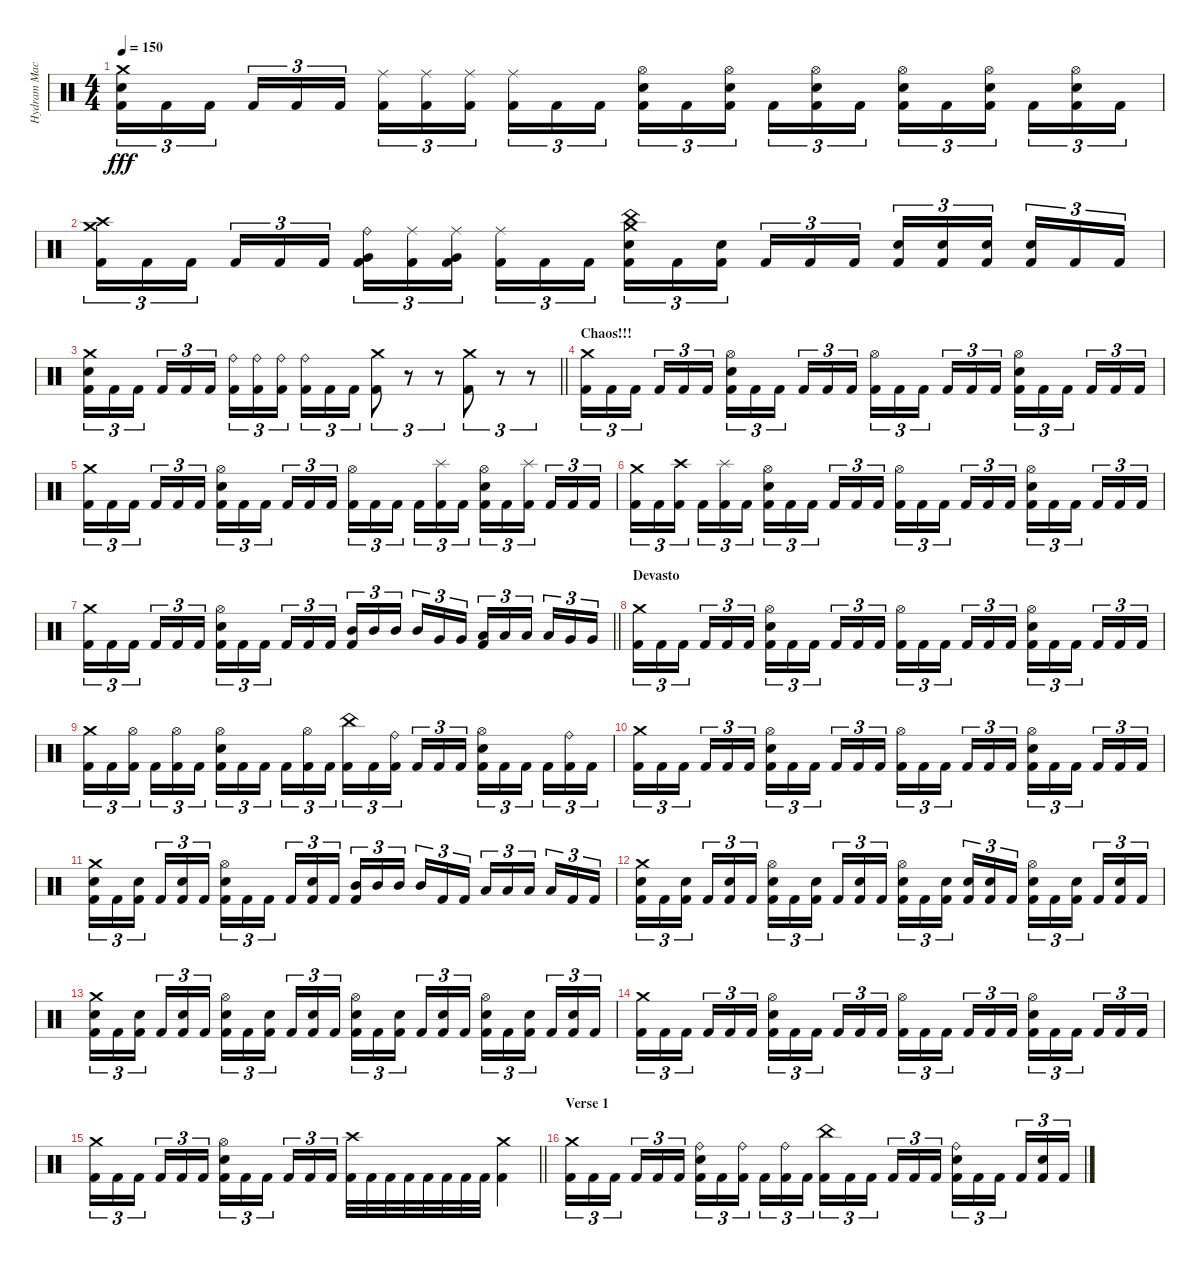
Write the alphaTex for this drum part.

\track ("Hydram Machine" "Hydram Mac") {instrument percussion}
\staff {score}
\articulation defaults
\ts (4 4)
\tempo 150
\clef neutral
\ks c
("Crash medium (hit)" "Electric Snare (hit)" "Kick (hit) 2").16{tu (3 2) dy fff} "Kick (hit) 2".16{tu (3 2)} "Kick (hit) 2".16{tu (3 2) beam splitsecondary} "Kick (hit) 2".16{tu (3 2)} "Kick (hit) 2".16{tu (3 2)} "Kick (hit) 2".16{tu (3 2)} ("Ride (middle)" "Kick (hit) 2").16{tu (3 2)} ("Ride (middle)" "Kick (hit) 2").16{tu (3 2)} ("Ride (middle)" "Kick (hit) 2").16{tu (3 2) beam splitsecondary} ("Ride (middle)" "Kick (hit) 2").16{tu (3 2)} "Kick (hit) 2".16{tu (3 2)} "Kick (hit) 2".16{tu (3 2)} ("Hi-Hat (open)" "Electric Snare (hit)" "Kick (hit) 2").16{tu (3 2)} "Kick (hit) 2".16{tu (3 2)} ("Hi-Hat (open)" "Electric Snare (hit)" "Kick (hit) 2").16{tu (3 2) beam splitsecondary} "Kick (hit) 2".16{tu (3 2)} ("Hi-Hat (open)" "Electric Snare (hit)" "Kick (hit) 2").16{tu (3 2)} "Kick (hit) 2".16{tu (3 2)} ("Hi-Hat (open)" "Electric Snare (hit)" "Kick (hit) 2").16{tu (3 2)} "Kick (hit) 2".16{tu (3 2)} ("Hi-Hat (open)" "Electric Snare (hit)" "Kick (hit) 2").16{tu (3 2) beam splitsecondary} "Kick (hit) 2".16{tu (3 2)} ("Hi-Hat (open)" "Electric Snare (hit)" "Kick (hit) 2").16{tu (3 2)} "Kick (hit) 2".16{tu (3 2)} |
("Crash medium (hit)" "Crash high (hit)" "Kick (hit) 2").16{tu (3 2)} "Kick (hit) 2".16{tu (3 2)} "Kick (hit) 2".16{tu (3 2) beam splitsecondary} "Kick (hit) 2".16{tu (3 2)} "Kick (hit) 2".16{tu (3 2)} "Kick (hit) 2".16{tu (3 2)} ("Ride (bell)" "Very Low Tom (hit)" "Kick (hit) 2").16{tu (3 2)} ("Ride (middle)" "Kick (hit) 2").16{tu (3 2)} ("Ride (middle)" "Very Low Tom (hit)" "Kick (hit) 2").16{tu (3 2) beam splitsecondary} ("Ride (middle)" "Kick (hit) 2").16{tu (3 2)} "Kick (hit) 2".16{tu (3 2)} "Kick (hit) 2".16{tu (3 2)} ("Crash medium (hit)" "China (hit)" "Electric Snare (hit)" "Kick (hit) 2").16{tu (3 2)} "Kick (hit) 2".16{tu (3 2)} ("Electric Snare (hit)" "Kick (hit) 2").16{tu (3 2) beam splitsecondary} "Kick (hit) 2".16{tu (3 2)} "Kick (hit) 2".16{tu (3 2)} "Kick (hit) 2".16{tu (3 2)} ("Electric Snare (hit)" "Kick (hit) 2").16{tu (3 2)} ("Electric Snare (hit)" "Kick (hit) 2").16{tu (3 2)} ("Electric Snare (hit)" "Kick (hit) 2").16{tu (3 2) beam splitsecondary} ("Electric Snare (hit)" "Kick (hit) 2").16{tu (3 2)} "Kick (hit) 2".16{tu (3 2)} "Kick (hit) 2".16{tu (3 2)} |
\barLineRight lightlight
("Crash medium (hit)" "Electric Snare (hit)" "Kick (hit) 2").16{tu (3 2)} "Kick (hit) 2".16{tu (3 2)} "Kick (hit) 2".16{tu (3 2) beam splitsecondary} "Kick (hit) 2".16{tu (3 2)} "Kick (hit) 2".16{tu (3 2)} "Kick (hit) 2".16{tu (3 2)} ("Ride (bell)" "Kick (hit) 2").16{tu (3 2)} ("Ride (bell)" "Kick (hit) 2").16{tu (3 2)} ("Ride (bell)" "Kick (hit) 2").16{tu (3 2) beam splitsecondary} ("Ride (bell)" "Kick (hit) 2").16{tu (3 2)} "Kick (hit) 2".16{tu (3 2)} "Kick (hit) 2".16{tu (3 2)} ("Crash medium (hit)" "Kick (hit) 2").8{tu (3 2)} r.8{tu (3 2)} r.8{tu (3 2)} ("Crash medium (hit)" "Kick (hit) 2").8{tu (3 2)} r.8{tu (3 2)} r.8{tu (3 2)} |
\section ("" "Chaos!!!")
("Crash medium (hit)" "Kick (hit) 2").16{tu (3 2)} "Kick (hit) 2".16{tu (3 2)} "Kick (hit) 2".16{tu (3 2) beam splitsecondary} "Kick (hit) 2".16{tu (3 2)} "Kick (hit) 2".16{tu (3 2)} "Kick (hit) 2".16{tu (3 2)} ("Hi-Hat (open)" "Electric Snare (hit)" "Kick (hit) 2").16{tu (3 2)} "Kick (hit) 2".16{tu (3 2)} "Kick (hit) 2".16{tu (3 2) beam splitsecondary} "Kick (hit) 2".16{tu (3 2)} "Kick (hit) 2".16{tu (3 2)} "Kick (hit) 2".16{tu (3 2)} ("Hi-Hat (open)" "Kick (hit) 2").16{tu (3 2)} "Kick (hit) 2".16{tu (3 2)} "Kick (hit) 2".16{tu (3 2) beam splitsecondary} "Kick (hit) 2".16{tu (3 2)} "Kick (hit) 2".16{tu (3 2)} "Kick (hit) 2".16{tu (3 2)} ("Hi-Hat (open)" "Electric Snare (hit)" "Kick (hit) 2").16{tu (3 2)} "Kick (hit) 2".16{tu (3 2)} "Kick (hit) 2".16{tu (3 2) beam splitsecondary} "Kick (hit) 2".16{tu (3 2)} "Kick (hit) 2".16{tu (3 2)} "Kick (hit) 2".16{tu (3 2)} |
("Crash medium (hit)" "Kick (hit) 2").16{tu (3 2)} "Kick (hit) 2".16{tu (3 2)} "Kick (hit) 2".16{tu (3 2) beam splitsecondary} "Kick (hit) 2".16{tu (3 2)} "Kick (hit) 2".16{tu (3 2)} "Kick (hit) 2".16{tu (3 2)} ("Hi-Hat (open)" "Electric Snare (hit)" "Kick (hit) 2").16{tu (3 2)} "Kick (hit) 2".16{tu (3 2)} "Kick (hit) 2".16{tu (3 2) beam splitsecondary} "Kick (hit) 2".16{tu (3 2)} "Kick (hit) 2".16{tu (3 2)} "Kick (hit) 2".16{tu (3 2)} ("Hi-Hat (open)" "Kick (hit) 2").16{tu (3 2)} "Kick (hit) 2".16{tu (3 2)} "Kick (hit) 2".16{tu (3 2) beam splitsecondary} "Kick (hit) 2".16{tu (3 2)} ("Splash (hit)" "Kick (hit) 2").16{tu (3 2)} "Kick (hit) 2".16{tu (3 2)} ("Hi-Hat (open)" "Electric Snare (hit)" "Kick (hit) 2").16{tu (3 2)} "Kick (hit) 2".16{tu (3 2)} ("Splash (hit)" "Kick (hit) 2").16{tu (3 2) beam splitsecondary} "Kick (hit) 2".16{tu (3 2)} "Kick (hit) 2".16{tu (3 2)} "Kick (hit) 2".16{tu (3 2)} |
("Crash medium (hit)" "Kick (hit) 2").16{tu (3 2)} "Kick (hit) 2".16{tu (3 2)} ("Crash high (hit)" "Kick (hit) 2").16{tu (3 2) beam splitsecondary} "Kick (hit) 2".16{tu (3 2)} ("Splash (hit)" "Kick (hit) 2").16{tu (3 2)} "Kick (hit) 2".16{tu (3 2)} ("Hi-Hat (open)" "Electric Snare (hit)" "Kick (hit) 2").16{tu (3 2)} "Kick (hit) 2".16{tu (3 2)} "Kick (hit) 2".16{tu (3 2) beam splitsecondary} "Kick (hit) 2".16{tu (3 2)} "Kick (hit) 2".16{tu (3 2)} "Kick (hit) 2".16{tu (3 2)} ("Hi-Hat (open)" "Kick (hit) 2").16{tu (3 2)} "Kick (hit) 2".16{tu (3 2)} "Kick (hit) 2".16{tu (3 2) beam splitsecondary} "Kick (hit) 2".16{tu (3 2)} "Kick (hit) 2".16{tu (3 2)} "Kick (hit) 2".16{tu (3 2)} ("Hi-Hat (open)" "Electric Snare (hit)" "Kick (hit) 2").16{tu (3 2)} "Kick (hit) 2".16{tu (3 2)} "Kick (hit) 2".16{tu (3 2) beam splitsecondary} "Kick (hit) 2".16{tu (3 2)} "Kick (hit) 2".16{tu (3 2)} "Kick (hit) 2".16{tu (3 2)} |
\barLineRight lightlight
("Crash medium (hit)" "Kick (hit) 2").16{tu (3 2)} "Kick (hit) 2".16{tu (3 2)} "Kick (hit) 2".16{tu (3 2) beam splitsecondary} "Kick (hit) 2".16{tu (3 2)} "Kick (hit) 2".16{tu (3 2)} "Kick (hit) 2".16{tu (3 2)} ("Hi-Hat (open)" "Electric Snare (hit)" "Kick (hit) 2").16{tu (3 2)} "Kick (hit) 2".16{tu (3 2)} "Kick (hit) 2".16{tu (3 2) beam splitsecondary} "Kick (hit) 2".16{tu (3 2)} "Kick (hit) 2".16{tu (3 2)} "Kick (hit) 2".16{tu (3 2)} ("Mid Tom (hit)" "Kick (hit) 2").16{tu (3 2)} "Mid Tom (hit)".16{tu (3 2)} "Mid Tom (hit)".16{tu (3 2) beam splitsecondary} "Mid Tom (hit)".16{tu (3 2)} "Very Low Tom (hit)".16{tu (3 2)} "Very Low Tom (hit)".16{tu (3 2)} ("Low Tom (hit)" "Kick (hit) 2").16{tu (3 2)} "Low Tom (hit)".16{tu (3 2)} "Low Tom (hit)".16{tu (3 2) beam splitsecondary} "Low Tom (hit)".16{tu (3 2)} "Very Low Tom (hit)".16{tu (3 2)} "Very Low Tom (hit)".16{tu (3 2)} |
\section ("" "Devasto")
("Crash medium (hit)" "Kick (hit) 2").16{tu (3 2)} "Kick (hit) 2".16{tu (3 2)} "Kick (hit) 2".16{tu (3 2) beam splitsecondary} "Kick (hit) 2".16{tu (3 2)} "Kick (hit) 2".16{tu (3 2)} "Kick (hit) 2".16{tu (3 2)} ("Hi-Hat (open)" "Electric Snare (hit)" "Kick (hit) 2").16{tu (3 2)} "Kick (hit) 2".16{tu (3 2)} "Kick (hit) 2".16{tu (3 2) beam splitsecondary} "Kick (hit) 2".16{tu (3 2)} "Kick (hit) 2".16{tu (3 2)} "Kick (hit) 2".16{tu (3 2)} ("Hi-Hat (open)" "Kick (hit) 2").16{tu (3 2)} "Kick (hit) 2".16{tu (3 2)} "Kick (hit) 2".16{tu (3 2) beam splitsecondary} "Kick (hit) 2".16{tu (3 2)} "Kick (hit) 2".16{tu (3 2)} "Kick (hit) 2".16{tu (3 2)} ("Hi-Hat (open)" "Electric Snare (hit)" "Kick (hit) 2").16{tu (3 2)} "Kick (hit) 2".16{tu (3 2)} "Kick (hit) 2".16{tu (3 2) beam splitsecondary} "Kick (hit) 2".16{tu (3 2)} "Kick (hit) 2".16{tu (3 2)} "Kick (hit) 2".16{tu (3 2)} |
("Crash medium (hit)" "Kick (hit) 2").16{tu (3 2)} "Kick (hit) 2".16{tu (3 2)} ("Hi-Hat (open)" "Kick (hit) 2").16{tu (3 2) beam splitsecondary} "Kick (hit) 2".16{tu (3 2)} ("Hi-Hat (open)" "Kick (hit) 2").16{tu (3 2)} "Kick (hit) 2".16{tu (3 2)} ("Hi-Hat (open)" "Electric Snare (hit)" "Kick (hit) 2").16{tu (3 2)} "Kick (hit) 2".16{tu (3 2)} "Kick (hit) 2".16{tu (3 2) beam splitsecondary} "Kick (hit) 2".16{tu (3 2)} ("Hi-Hat (open)" "Kick (hit) 2").16{tu (3 2)} "Kick (hit) 2".16{tu (3 2)} ("China (hit)" "Kick (hit) 2").16{tu (3 2)} "Kick (hit) 2".16{tu (3 2)} ("Ride (bell)" "Kick (hit) 2").16{tu (3 2) beam splitsecondary} "Kick (hit) 2".16{tu (3 2)} "Kick (hit) 2".16{tu (3 2)} "Kick (hit) 2".16{tu (3 2)} ("Hi-Hat (open)" "Electric Snare (hit)" "Kick (hit) 2").16{tu (3 2)} "Kick (hit) 2".16{tu (3 2)} "Kick (hit) 2".16{tu (3 2) beam splitsecondary} "Kick (hit) 2".16{tu (3 2)} ("Ride (bell)" "Kick (hit) 2").16{tu (3 2)} "Kick (hit) 2".16{tu (3 2)} |
("Crash medium (hit)" "Kick (hit) 2").16{tu (3 2)} "Kick (hit) 2".16{tu (3 2)} "Kick (hit) 2".16{tu (3 2) beam splitsecondary} "Kick (hit) 2".16{tu (3 2)} "Kick (hit) 2".16{tu (3 2)} "Kick (hit) 2".16{tu (3 2)} ("Hi-Hat (open)" "Electric Snare (hit)" "Kick (hit) 2").16{tu (3 2)} "Kick (hit) 2".16{tu (3 2)} "Kick (hit) 2".16{tu (3 2) beam splitsecondary} "Kick (hit) 2".16{tu (3 2)} "Kick (hit) 2".16{tu (3 2)} "Kick (hit) 2".16{tu (3 2)} ("Hi-Hat (open)" "Kick (hit) 2").16{tu (3 2)} "Kick (hit) 2".16{tu (3 2)} "Kick (hit) 2".16{tu (3 2) beam splitsecondary} "Kick (hit) 2".16{tu (3 2)} "Kick (hit) 2".16{tu (3 2)} "Kick (hit) 2".16{tu (3 2)} ("Hi-Hat (open)" "Electric Snare (hit)" "Kick (hit) 2").16{tu (3 2)} "Kick (hit) 2".16{tu (3 2)} "Kick (hit) 2".16{tu (3 2) beam splitsecondary} "Kick (hit) 2".16{tu (3 2)} "Kick (hit) 2".16{tu (3 2)} "Kick (hit) 2".16{tu (3 2)} |
("Crash medium (hit)" "Electric Snare (hit)" "Kick (hit) 2").16{tu (3 2)} "Kick (hit) 2".16{tu (3 2)} ("Electric Snare (hit)" "Kick (hit) 2").16{tu (3 2) beam splitsecondary} "Kick (hit) 2".16{tu (3 2)} ("Electric Snare (hit)" "Kick (hit) 2").16{tu (3 2)} "Kick (hit) 2".16{tu (3 2)} ("Hi-Hat (open)" "Electric Snare (hit)" "Kick (hit) 2").16{tu (3 2)} "Kick (hit) 2".16{tu (3 2)} "Kick (hit) 2".16{tu (3 2) beam splitsecondary} "Kick (hit) 2".16{tu (3 2)} ("Electric Snare (hit)" "Kick (hit) 2").16{tu (3 2)} "Kick (hit) 2".16{tu (3 2)} ("Mid Tom (hit)" "Kick (hit) 2").16{tu (3 2)} "Mid Tom (hit)".16{tu (3 2)} "Mid Tom (hit)".16{tu (3 2) beam splitsecondary} "Mid Tom (hit)".16{tu (3 2)} "Kick (hit) 2".16{tu (3 2)} "Kick (hit) 2".16{tu (3 2)} "Low Tom (hit)".16{tu (3 2)} "Low Tom (hit)".16{tu (3 2)} "Low Tom (hit)".16{tu (3 2) beam splitsecondary} "Low Tom (hit)".16{tu (3 2)} "Kick (hit) 2".16{tu (3 2)} "Kick (hit) 2".16{tu (3 2)} |
("Crash medium (hit)" "Electric Snare (hit)" "Kick (hit) 2").16{tu (3 2)} "Kick (hit) 2".16{tu (3 2)} ("Electric Snare (hit)" "Kick (hit) 2").16{tu (3 2) beam splitsecondary} "Kick (hit) 2".16{tu (3 2)} ("Electric Snare (hit)" "Kick (hit) 2").16{tu (3 2)} "Kick (hit) 2".16{tu (3 2)} ("Hi-Hat (open)" "Electric Snare (hit)" "Kick (hit) 2").16{tu (3 2)} "Kick (hit) 2".16{tu (3 2)} ("Electric Snare (hit)" "Kick (hit) 2").16{tu (3 2) beam splitsecondary} "Kick (hit) 2".16{tu (3 2)} ("Electric Snare (hit)" "Kick (hit) 2").16{tu (3 2)} "Kick (hit) 2".16{tu (3 2)} ("Hi-Hat (open)" "Electric Snare (hit)" "Kick (hit) 2").16{tu (3 2)} "Kick (hit) 2".16{tu (3 2)} ("Electric Snare (hit)" "Kick (hit) 2").16{tu (3 2) beam splitsecondary} ("Electric Snare (hit)" "Kick (hit) 2").16{tu (3 2)} ("Electric Snare (hit)" "Kick (hit) 2").16{tu (3 2)} "Kick (hit) 2".16{tu (3 2)} ("Hi-Hat (open)" "Electric Snare (hit)" "Kick (hit) 2").16{tu (3 2)} "Kick (hit) 2".16{tu (3 2)} ("Electric Snare (hit)" "Kick (hit) 2").16{tu (3 2) beam splitsecondary} "Kick (hit) 2".16{tu (3 2)} ("Electric Snare (hit)" "Kick (hit) 2").16{tu (3 2)} "Kick (hit) 2".16{tu (3 2)} |
("Crash medium (hit)" "Electric Snare (hit)" "Kick (hit) 2").16{tu (3 2)} "Kick (hit) 2".16{tu (3 2)} ("Electric Snare (hit)" "Kick (hit) 2").16{tu (3 2) beam splitsecondary} "Kick (hit) 2".16{tu (3 2)} ("Electric Snare (hit)" "Kick (hit) 2").16{tu (3 2)} "Kick (hit) 2".16{tu (3 2)} ("Hi-Hat (open)" "Electric Snare (hit)" "Kick (hit) 2").16{tu (3 2)} "Kick (hit) 2".16{tu (3 2)} ("Electric Snare (hit)" "Kick (hit) 2").16{tu (3 2) beam splitsecondary} "Kick (hit) 2".16{tu (3 2)} ("Electric Snare (hit)" "Kick (hit) 2").16{tu (3 2)} "Kick (hit) 2".16{tu (3 2)} ("Hi-Hat (open)" "Electric Snare (hit)" "Kick (hit) 2").16{tu (3 2)} "Kick (hit) 2".16{tu (3 2)} ("Electric Snare (hit)" "Kick (hit) 2").16{tu (3 2) beam splitsecondary} "Kick (hit) 2".16{tu (3 2)} ("Electric Snare (hit)" "Kick (hit) 2").16{tu (3 2)} "Kick (hit) 2".16{tu (3 2)} ("Hi-Hat (open)" "Electric Snare (hit)" "Kick (hit) 2").16{tu (3 2)} "Kick (hit) 2".16{tu (3 2)} ("Electric Snare (hit)" "Kick (hit) 2").16{tu (3 2) beam splitsecondary} "Kick (hit) 2".16{tu (3 2)} ("Electric Snare (hit)" "Kick (hit) 2").16{tu (3 2)} "Kick (hit) 2".16{tu (3 2)} |
("Crash medium (hit)" "Kick (hit) 2").16{tu (3 2)} "Kick (hit) 2".16{tu (3 2)} "Kick (hit) 2".16{tu (3 2) beam splitsecondary} "Kick (hit) 2".16{tu (3 2)} "Kick (hit) 2".16{tu (3 2)} "Kick (hit) 2".16{tu (3 2)} ("Hi-Hat (open)" "Electric Snare (hit)" "Kick (hit) 2").16{tu (3 2)} "Kick (hit) 2".16{tu (3 2)} "Kick (hit) 2".16{tu (3 2) beam splitsecondary} "Kick (hit) 2".16{tu (3 2)} "Kick (hit) 2".16{tu (3 2)} "Kick (hit) 2".16{tu (3 2)} ("Hi-Hat (open)" "Kick (hit) 2").16{tu (3 2)} "Kick (hit) 2".16{tu (3 2)} "Kick (hit) 2".16{tu (3 2) beam splitsecondary} "Kick (hit) 2".16{tu (3 2)} "Kick (hit) 2".16{tu (3 2)} "Kick (hit) 2".16{tu (3 2)} ("Hi-Hat (open)" "Electric Snare (hit)" "Kick (hit) 2").16{tu (3 2)} "Kick (hit) 2".16{tu (3 2)} "Kick (hit) 2".16{tu (3 2) beam splitsecondary} "Kick (hit) 2".16{tu (3 2)} "Kick (hit) 2".16{tu (3 2)} "Kick (hit) 2".16{tu (3 2)} |
\barLineRight lightlight
("Crash medium (hit)" "Kick (hit) 2").16{tu (3 2)} "Kick (hit) 2".16{tu (3 2)} "Kick (hit) 2".16{tu (3 2) beam splitsecondary} "Kick (hit) 2".16{tu (3 2)} "Kick (hit) 2".16{tu (3 2)} "Kick (hit) 2".16{tu (3 2)} ("Hi-Hat (open)" "Electric Snare (hit)" "Kick (hit) 2").16{tu (3 2)} "Kick (hit) 2".16{tu (3 2)} "Kick (hit) 2".16{tu (3 2) beam splitsecondary} "Kick (hit) 2".16{tu (3 2)} "Kick (hit) 2".16{tu (3 2)} "Kick (hit) 2".16{tu (3 2)} ("Crash high (hit)" "Kick (hit) 2").32 "Kick (hit) 2".32 "Kick (hit) 2".32 "Kick (hit) 2".32 "Kick (hit) 2".32 "Kick (hit) 2".32 "Kick (hit) 2".32 "Kick (hit) 2".32 ("Crash medium (hit)" "Kick (hit) 2").4 |
\section ("" "Verse 1")
("Crash medium (hit)" "Kick (hit) 2").16{tu (3 2)} "Kick (hit) 2".16{tu (3 2)} "Kick (hit) 2".16{tu (3 2) beam splitsecondary} "Kick (hit) 2".16{tu (3 2)} "Kick (hit) 2".16{tu (3 2)} "Kick (hit) 2".16{tu (3 2)} ("Ride (bell)" "Electric Snare (hit)" "Kick (hit) 2").16{tu (3 2)} "Kick (hit) 2".16{tu (3 2)} ("Ride (bell)" "Kick (hit) 2").16{tu (3 2) beam splitsecondary} "Kick (hit) 2".16{tu (3 2)} ("Ride (bell)" "Kick (hit) 2").16{tu (3 2)} "Kick (hit) 2".16{tu (3 2)} ("China (hit)" "Kick (hit) 2").16{tu (3 2)} "Kick (hit) 2".16{tu (3 2)} "Kick (hit) 2".16{tu (3 2) beam splitsecondary} "Kick (hit) 2".16{tu (3 2)} "Kick (hit) 2".16{tu (3 2)} "Kick (hit) 2".16{tu (3 2)} ("Ride (bell)" "Electric Snare (hit)" "Kick (hit) 2").16{tu (3 2)} "Kick (hit) 2".16{tu (3 2)} "Kick (hit) 2".16{tu (3 2) beam splitsecondary} "Kick (hit) 2".16{tu (3 2)} ("Electric Snare (hit)" "Kick (hit) 2").16{tu (3 2)} "Kick (hit) 2".16{tu (3 2)}
